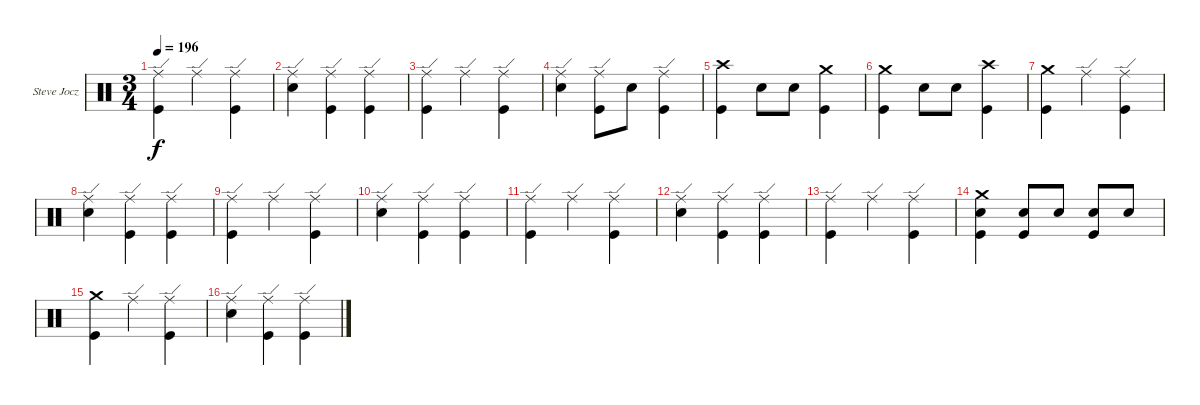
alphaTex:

\defaultSystemsLayout 4
\bracketExtendMode groupsimilarinstruments
\firstSystemTrackNameOrientation horizontal
\otherSystemsTrackNameOrientation horizontal
\track ("Steve Jocz " "Steve Jocz") {instrument percussion}
\staff {score}
\articulation defaults
\ts (3 4)
\tempo 196
\clef neutral
\ks c
("Ride (edge)" "Kick (hit)").4{dy f} "Ride (edge)".4 ("Ride (edge)" "Kick (hit)").4 |
("Ride (edge)" "Snare (hit) 2").4 ("Ride (edge)" "Kick (hit)").4 ("Ride (edge)" "Kick (hit)").4 |
("Ride (edge)" "Kick (hit)").4 "Ride (edge)".4 ("Ride (edge)" "Kick (hit)").4 |
("Ride (edge)" "Snare (hit) 2").4 ("Ride (edge)" "Kick (hit)").8 "Snare (hit) 2".8 ("Ride (edge)" "Kick (hit)").4 |
("Crash high (hit)" "Kick (hit)").4 "Snare (hit) 2".8 "Snare (hit) 2".8 ("Crash medium (hit)" "Kick (hit)").4 |
("Crash medium (hit)" "Kick (hit)").4 "Snare (hit) 2".8 "Snare (hit) 2".8 ("Crash high (hit)" "Kick (hit)").4 |
("Crash medium (hit)" "Kick (hit)").4 "Ride (edge)".4 ("Ride (edge)" "Kick (hit)").4 |
("Ride (edge)" "Snare (hit) 2").4 ("Ride (edge)" "Kick (hit)").4 ("Ride (edge)" "Kick (hit)").4 |
("Ride (edge)" "Kick (hit)").4 "Ride (edge)".4 ("Ride (edge)" "Kick (hit)").4 |
("Ride (edge)" "Snare (hit) 2").4 ("Ride (edge)" "Kick (hit)").4 ("Ride (edge)" "Kick (hit)").4 |
("Ride (edge)" "Kick (hit)").4 "Ride (edge)".4 ("Ride (edge)" "Kick (hit)").4 |
("Ride (edge)" "Snare (hit) 2").4 ("Ride (edge)" "Kick (hit)").4 ("Ride (edge)" "Kick (hit)").4 |
("Ride (edge)" "Kick (hit)").4 "Ride (edge)".4 ("Ride (edge)" "Kick (hit)").4 |
("Crash medium (hit)" "Snare (hit) 2" "Kick (hit)").4 ("Snare (hit) 2" "Kick (hit)").8 "Snare (hit) 2".8 ("Snare (hit) 2" "Kick (hit)").8 "Snare (hit) 2".8 |
("Crash medium (hit)" "Kick (hit)").4 "Ride (edge)".4 ("Ride (edge)" "Kick (hit)").4 |
("Ride (edge)" "Snare (hit) 2").4 ("Ride (edge)" "Kick (hit)").4 ("Ride (edge)" "Kick (hit)").4
